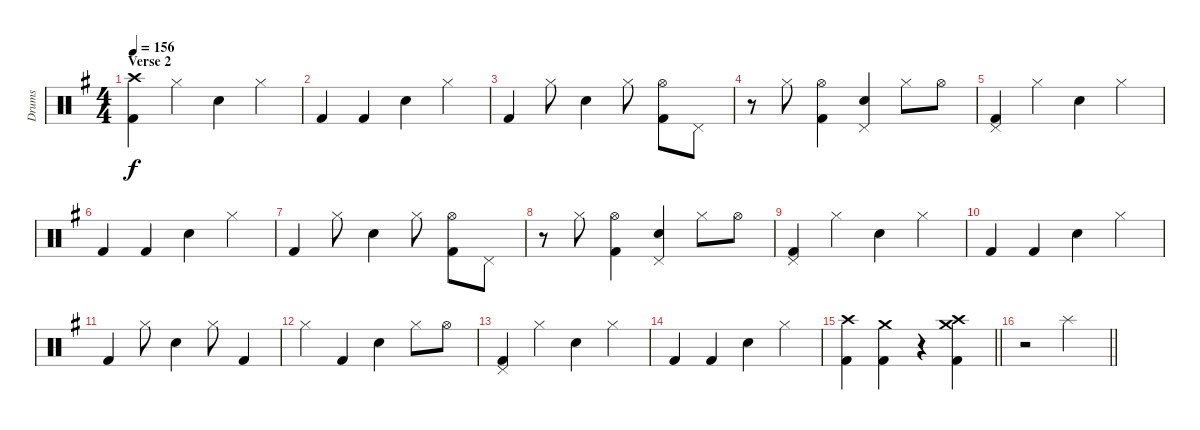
\track ("Drums" "Drums") {instrument percussion}
\staff {score}
\articulation defaults
\ts (4 4)
\section ("" "Verse 2")
\tempo 156
\clef neutral
\ks g
("Crash high (hit)" "Kick (hit) 2").4{dy f} "Hi-Hat (closed)".4 "Snare (hit) 2".4 "Hi-Hat (closed)".4 |
"Kick (hit) 2".4 "Kick (hit) 2".4 "Snare (hit) 2".4 "Hi-Hat (closed)".4 |
"Kick (hit) 2".4 "Hi-Hat (closed)".8 "Snare (hit) 2".4 "Hi-Hat (closed)".8 ("Hi-Hat (open)" "Kick (hit) 2").8 "Pedal Hi-Hat (hit)".8 |
r.8 "Hi-Hat (closed)".8 ("Hi-Hat (open)" "Kick (hit) 2").4 ("Pedal Hi-Hat (hit)" "Snare (hit) 2").4 "Hi-Hat (closed)".8 "Hi-Hat (open)".8 |
("Pedal Hi-Hat (hit)" "Kick (hit) 2").4 "Hi-Hat (closed)".4 "Snare (hit) 2".4 "Hi-Hat (closed)".4 |
"Kick (hit) 2".4 "Kick (hit) 2".4 "Snare (hit) 2".4 "Hi-Hat (closed)".4 |
"Kick (hit) 2".4 "Hi-Hat (closed)".8 "Snare (hit) 2".4 "Hi-Hat (closed)".8 ("Hi-Hat (open)" "Kick (hit) 2").8 "Pedal Hi-Hat (hit)".8 |
r.8 "Hi-Hat (closed)".8 ("Hi-Hat (open)" "Kick (hit) 2").4 ("Pedal Hi-Hat (hit)" "Snare (hit) 2").4 "Hi-Hat (closed)".8 "Hi-Hat (open)".8 |
("Pedal Hi-Hat (hit)" "Kick (hit) 2").4 "Hi-Hat (closed)".4 "Snare (hit) 2".4 "Hi-Hat (closed)".4 |
"Kick (hit) 2".4 "Kick (hit) 2".4 "Snare (hit) 2".4 "Hi-Hat (closed)".4 |
"Kick (hit) 2".4 "Hi-Hat (closed)".8 "Snare (hit) 2".4 "Hi-Hat (closed)".8 "Kick (hit) 2".4 |
"Hi-Hat (closed)".4 "Kick (hit) 2".4 "Snare (hit) 2".4 "Hi-Hat (closed)".8 "Hi-Hat (open)".8 |
("Pedal Hi-Hat (hit)" "Kick (hit) 2").4 "Hi-Hat (closed)".4 "Snare (hit) 2".4 "Hi-Hat (closed)".4 |
"Kick (hit) 2".4 "Kick (hit) 2".4 "Snare (hit) 2".4 "Hi-Hat (closed)".4 |
\barLineRight lightlight
("Crash high (hit)" "Kick (hit) 2").4 ("Crash medium (hit)" "Kick (hit) 2").4 r.4 ("Crash high (hit)" "Crash medium (hit)" "Kick (hit) 2").4 |
\barLineRight lightlight
r.2 "Splash (hit)".2
